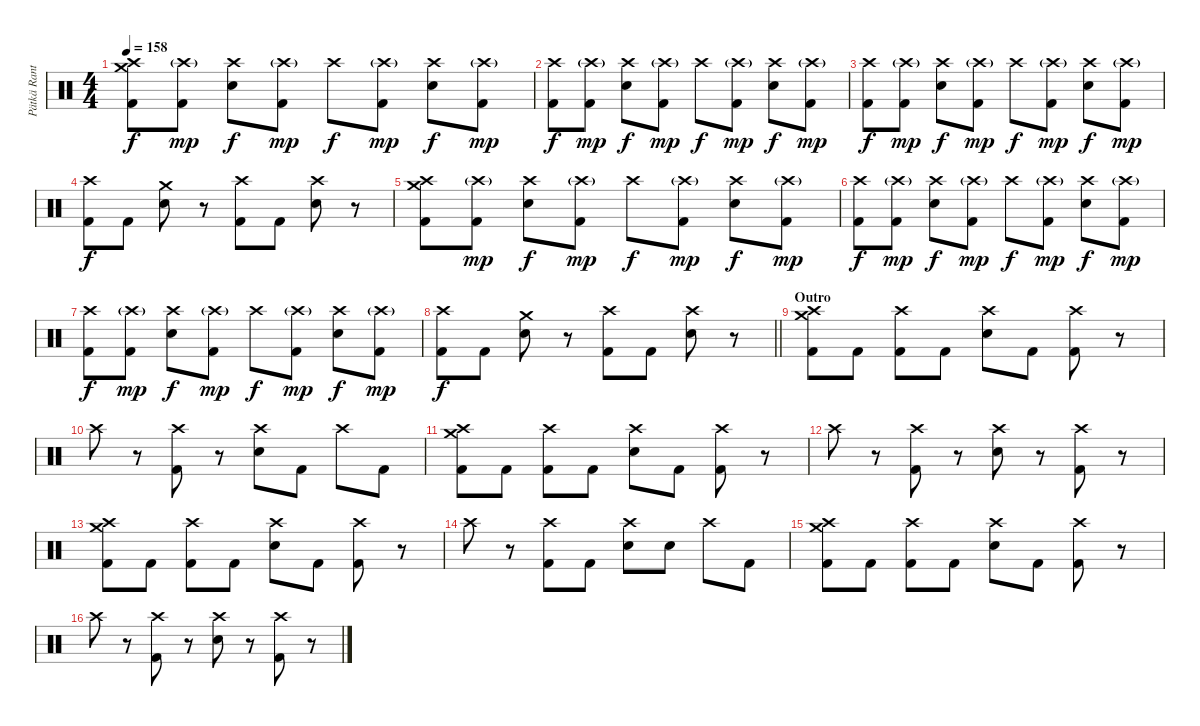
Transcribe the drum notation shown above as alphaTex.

\track ("Pätkä Rantala (Drums)" "Pätkä Rant") {instrument percussion}
\staff {score}
\articulation defaults
\ts (4 4)
\tempo 158
\clef neutral
\ks c
("Crash medium (hit)" "Crash high (hit)" "Kick (hit) 2").8{dy f} ("Crash high (hit)"{g} "Kick (hit) 2").8{dy mp} ("Crash high (hit)" "Snare (hit) 2").8{dy f} ("Crash high (hit)"{g} "Kick (hit) 2").8{dy mp} "Crash high (hit)".8{dy f} ("Crash high (hit)"{g} "Kick (hit) 2").8{dy mp} ("Crash high (hit)" "Snare (hit) 2").8{dy f} ("Crash high (hit)"{g} "Kick (hit) 2").8{dy mp} |
("Crash high (hit)" "Kick (hit) 2").8{dy f} ("Crash high (hit)"{g} "Kick (hit) 2").8{dy mp} ("Crash high (hit)" "Snare (hit) 2").8{dy f} ("Crash high (hit)"{g} "Kick (hit) 2").8{dy mp} "Crash high (hit)".8{dy f} ("Crash high (hit)"{g} "Kick (hit) 2").8{dy mp} ("Crash high (hit)" "Snare (hit) 2").8{dy f} ("Crash high (hit)"{g} "Kick (hit) 2").8{dy mp} |
("Crash high (hit)" "Kick (hit) 2").8{dy f} ("Crash high (hit)"{g} "Kick (hit) 2").8{dy mp} ("Crash high (hit)" "Snare (hit) 2").8{dy f} ("Crash high (hit)"{g} "Kick (hit) 2").8{dy mp} "Crash high (hit)".8{dy f} ("Crash high (hit)"{g} "Kick (hit) 2").8{dy mp} ("Crash high (hit)" "Snare (hit) 2").8{dy f} ("Crash high (hit)"{g} "Kick (hit) 2").8{dy mp} |
("Crash high (hit)" "Kick (hit) 2").8{dy f} "Kick (hit) 2".8 ("Crash medium (hit)" "Snare (hit) 2").8 r.8 ("Crash high (hit)" "Kick (hit) 2").8 "Kick (hit) 2".8 ("Crash high (hit)" "Snare (hit) 2").8 r.8 |
("Crash medium (hit)" "Crash high (hit)" "Kick (hit) 2").8 ("Crash high (hit)"{g} "Kick (hit) 2").8{dy mp} ("Crash high (hit)" "Snare (hit) 2").8{dy f} ("Crash high (hit)"{g} "Kick (hit) 2").8{dy mp} "Crash high (hit)".8{dy f} ("Crash high (hit)"{g} "Kick (hit) 2").8{dy mp} ("Crash high (hit)" "Snare (hit) 2").8{dy f} ("Crash high (hit)"{g} "Kick (hit) 2").8{dy mp} |
("Crash high (hit)" "Kick (hit) 2").8{dy f} ("Crash high (hit)"{g} "Kick (hit) 2").8{dy mp} ("Crash high (hit)" "Snare (hit) 2").8{dy f} ("Crash high (hit)"{g} "Kick (hit) 2").8{dy mp} "Crash high (hit)".8{dy f} ("Crash high (hit)"{g} "Kick (hit) 2").8{dy mp} ("Crash high (hit)" "Snare (hit) 2").8{dy f} ("Crash high (hit)"{g} "Kick (hit) 2").8{dy mp} |
("Crash high (hit)" "Kick (hit) 2").8{dy f} ("Crash high (hit)"{g} "Kick (hit) 2").8{dy mp} ("Crash high (hit)" "Snare (hit) 2").8{dy f} ("Crash high (hit)"{g} "Kick (hit) 2").8{dy mp} "Crash high (hit)".8{dy f} ("Crash high (hit)"{g} "Kick (hit) 2").8{dy mp} ("Crash high (hit)" "Snare (hit) 2").8{dy f} ("Crash high (hit)"{g} "Kick (hit) 2").8{dy mp} |
\barLineRight lightlight
("Crash high (hit)" "Kick (hit) 2").8{dy f} "Kick (hit) 2".8 ("Crash medium (hit)" "Snare (hit) 2").8 r.8 ("Crash high (hit)" "Kick (hit) 2").8 "Kick (hit) 2".8 ("Crash high (hit)" "Snare (hit) 2").8 r.8 |
\section ("" "Outro")
("Crash medium (hit)" "Crash high (hit)" "Kick (hit) 2").8 "Kick (hit) 2".8 ("Crash high (hit)" "Kick (hit) 2").8 "Kick (hit) 2".8 ("Crash high (hit)" "Snare (hit) 2").8 "Kick (hit) 2".8 ("Crash high (hit)" "Kick (hit) 2").8 r.8 |
"Crash high (hit)".8 r.8 ("Crash high (hit)" "Kick (hit) 2").8 r.8 ("Crash high (hit)" "Snare (hit) 2").8 "Kick (hit) 2".8 "Crash high (hit)".8 "Kick (hit) 2".8 |
("Crash medium (hit)" "Crash high (hit)" "Kick (hit) 2").8 "Kick (hit) 2".8 ("Crash high (hit)" "Kick (hit) 2").8 "Kick (hit) 2".8 ("Crash high (hit)" "Snare (hit) 2").8 "Kick (hit) 2".8 ("Crash high (hit)" "Kick (hit) 2").8 r.8 |
"Crash high (hit)".8 r.8 ("Crash high (hit)" "Kick (hit) 2").8 r.8 ("Crash high (hit)" "Snare (hit) 2").8 r.8 ("Crash high (hit)" "Kick (hit) 2").8 r.8 |
("Crash medium (hit)" "Crash high (hit)" "Kick (hit) 2").8 "Kick (hit) 2".8 ("Crash high (hit)" "Kick (hit) 2").8 "Kick (hit) 2".8 ("Crash high (hit)" "Snare (hit) 2").8 "Kick (hit) 2".8 ("Crash high (hit)" "Kick (hit) 2").8 r.8 |
"Crash high (hit)".8 r.8 ("Crash high (hit)" "Kick (hit) 2").8 "Kick (hit) 2".8 ("Crash high (hit)" "Snare (hit) 2").8 "Snare (hit) 2".8 "Crash high (hit)".8 "Kick (hit) 2".8 |
("Crash medium (hit)" "Crash high (hit)" "Kick (hit) 2").8 "Kick (hit) 2".8 ("Crash high (hit)" "Kick (hit) 2").8 "Kick (hit) 2".8 ("Crash high (hit)" "Snare (hit) 2").8 "Kick (hit) 2".8 ("Crash high (hit)" "Kick (hit) 2").8 r.8 |
"Crash high (hit)".8 r.8 ("Crash high (hit)" "Kick (hit) 2").8 r.8 ("Crash high (hit)" "Snare (hit) 2").8 r.8 ("Crash high (hit)" "Kick (hit) 2").8 r.8
